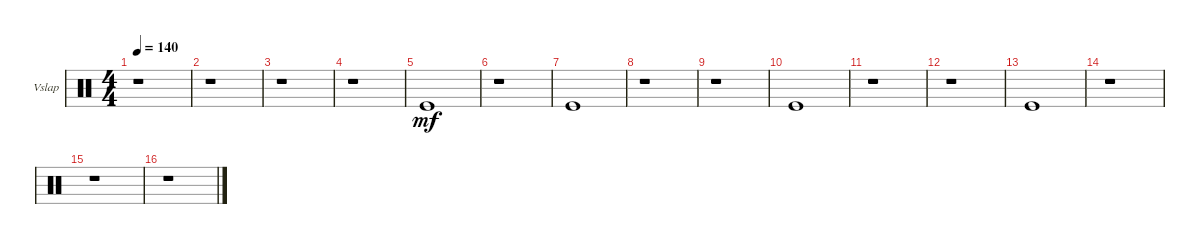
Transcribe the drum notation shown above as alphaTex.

\defaultSystemsLayout 4
\bracketExtendMode groupsimilarinstruments
\firstSystemTrackNameOrientation horizontal
\otherSystemsTrackNameOrientation horizontal
\track ("Vibraslap" "Vslap") {instrument percussion}
\staff {score}
\articulation defaults
\ts (4 4)
\tempo 140
\clef neutral
\scale
0.25
\ks c
r.1{dy mf} |
\scale
0.25 r.1 |
\scale
0.25 r.1 |
\scale
0.25 r.1 |
\scale
0.25 "Kick (hit)".1 |
\scale
0.25 r.1 |
\scale
0.25 "Kick (hit)".1 |
\scale
0.25 r.1 |
\scale
0.25 r.1 |
\scale
0.25 "Kick (hit)".1 |
\scale
0.25 r.1 |
\scale
0.25 r.1 |
\scale
0.25 "Kick (hit)".1 |
\scale
0.25 r.1 |
\scale
0.25 r.1 |
\scale
0.25 r.1
